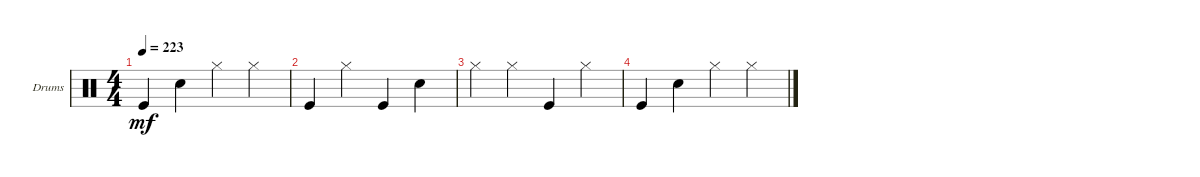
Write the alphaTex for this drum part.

\defaultSystemsLayout 4
\bracketExtendMode groupsimilarinstruments
\firstSystemTrackNameOrientation horizontal
\otherSystemsTrackNameOrientation horizontal
\track ("Drumkit" "Drums") {instrument percussion}
\staff {score}
\articulation defaults
\ts (4 4)
\tempo 223
\clef neutral
\ks c "Kick (hit)".4{dy mf} "Snare (hit) 2".4 "Hi-Hat (closed)".4 "Hi-Hat (closed)".4
|
"Kick (hit)".4 "Hi-Hat (closed)".4 "Kick (hit)".4 "Snare (hit) 2".4 |
"Hi-Hat (closed)".4 "Hi-Hat (closed)".4 "Kick (hit)".4 "Hi-Hat (closed)".4 |
"Kick (hit)".4 "Snare (hit) 2".4 "Hi-Hat (closed)".4 "Hi-Hat (closed)".4
